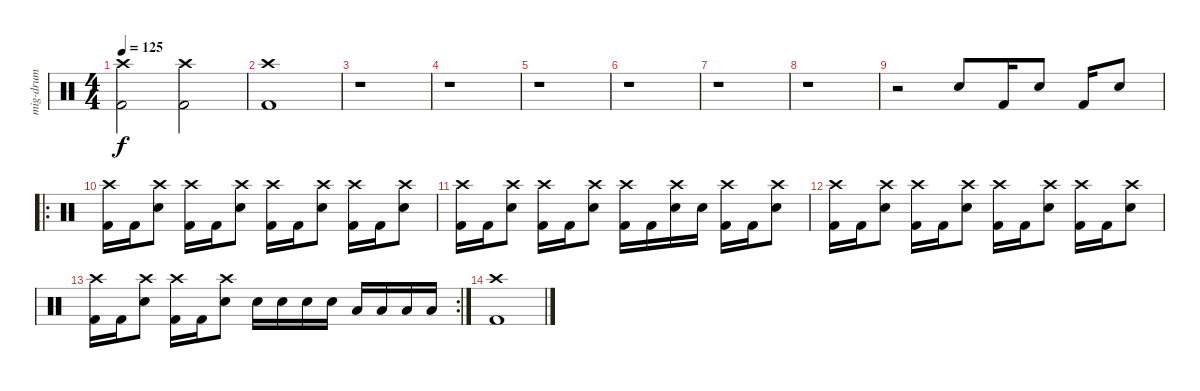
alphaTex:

\track ("mig-drum" "mig-drum") {instrument percussion}
\staff {score}
\articulation defaults
\ts (4 4)
\tempo 125
\clef neutral
\ks c
("Crash high (hit)" "Kick (hit) 2").2{dy f} ("Crash high (hit)" "Kick (hit) 2").2 |
("Crash high (hit)" "Kick (hit) 2").1 |
r.1 |
r.1 |
r.1 |
r.1 |
r.1 |
r.1 |
r.2 "Snare (hit) 2".8 "Kick (hit) 2".16 "Snare (hit) 2".8 "Kick (hit) 2".16 "Snare (hit) 2".8 |
\ro
("Crash high (hit)" "Kick (hit) 2").16 "Kick (hit) 2".16 ("Crash high (hit)" "Snare (hit) 2").8 ("Crash high (hit)" "Kick (hit) 2").16 "Kick (hit) 2".16 ("Crash high (hit)" "Snare (hit) 2").8 ("Crash high (hit)" "Kick (hit) 2").16 "Kick (hit) 2".16 ("Crash high (hit)" "Snare (hit) 2").8 ("Crash high (hit)" "Kick (hit) 2").16 "Kick (hit) 2".16 ("Crash high (hit)" "Snare (hit) 2").8 |
("Crash high (hit)" "Kick (hit) 2").16 "Kick (hit) 2".16 ("Crash high (hit)" "Snare (hit) 2").8 ("Crash high (hit)" "Kick (hit) 2").16 "Kick (hit) 2".16 ("Crash high (hit)" "Snare (hit) 2").8 ("Crash high (hit)" "Kick (hit) 2").16 "Kick (hit) 2".16 ("Crash high (hit)" "Snare (hit) 2").16 "Snare (hit) 2".16 ("Crash high (hit)" "Kick (hit) 2").16 "Kick (hit) 2".16 ("Crash high (hit)" "Snare (hit) 2").8 |
("Crash high (hit)" "Kick (hit) 2").16 "Kick (hit) 2".16 ("Crash high (hit)" "Snare (hit) 2").8 ("Crash high (hit)" "Kick (hit) 2").16 "Kick (hit) 2".16 ("Crash high (hit)" "Snare (hit) 2").8 ("Crash high (hit)" "Kick (hit) 2").16 "Kick (hit) 2".16 ("Crash high (hit)" "Snare (hit) 2").8 ("Crash high (hit)" "Kick (hit) 2").16 "Kick (hit) 2".16 ("Crash high (hit)" "Snare (hit) 2").8 |
\rc 2
("Crash high (hit)" "Kick (hit) 2").16 "Kick (hit) 2".16 ("Crash high (hit)" "Snare (hit) 2").8 ("Crash high (hit)" "Kick (hit) 2").16 "Kick (hit) 2".16 ("Crash high (hit)" "Snare (hit) 2").8 "Snare (hit) 2".16 "Snare (hit) 2".16 "Snare (hit) 2".16 "Snare (hit) 2".16 "Low Tom (hit)".16 "Low Tom (hit)".16 "Low Floor Tom (hit)".16 "Low Floor Tom (hit)".16 |
("Crash high (hit)" "Kick (hit) 2").1
